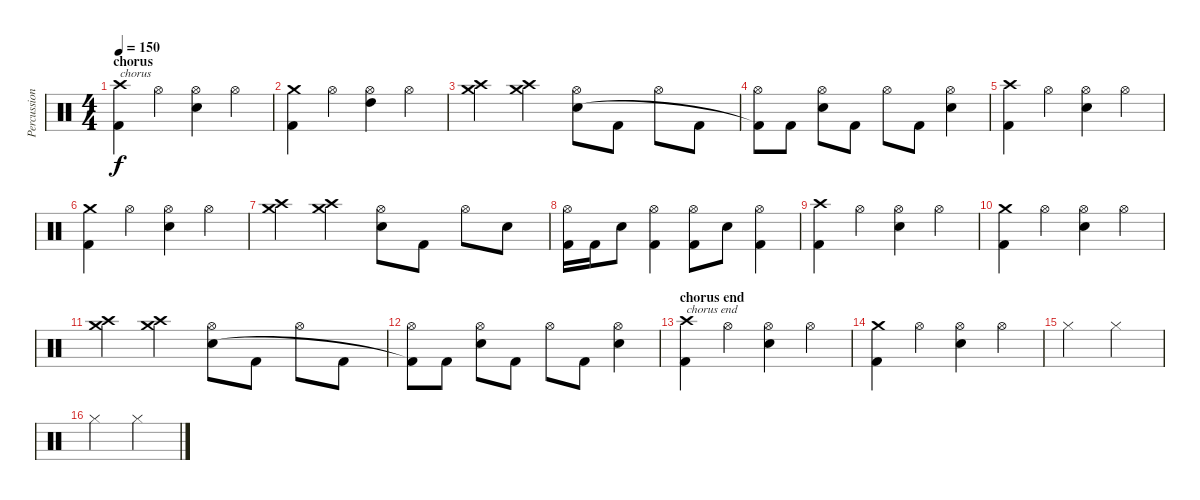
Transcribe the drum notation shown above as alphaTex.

\track ("Percussion" "Percussion") {instrument percussion}
\staff {score}
\articulation defaults
\ts (4 4)
\section ("" "chorus")
\tempo 150
\clef neutral
\ks c
("Crash high (hit)" "Kick (hit) 2").4{txt "chorus" dy f} "Hi-Hat (open)".4 ("Hi-Hat (open)" "Snare (hit) 2").4 "Hi-Hat (open)".4 |
("Crash medium (hit)" "Kick (hit) 2").4 "Hi-Hat (open)".4 ("Hi-Hat (open)" "High Tom (hit)").4 "Hi-Hat (open)".4 |
("Crash medium (hit)" "Crash high (hit)").4 ("Crash medium (hit)" "Crash high (hit)").4 ("Hi-Hat (open)" "Snare (hit) 2").8 "Kick (hit) 2".8 "Hi-Hat (open)".8 "Kick (hit) 2".8 |
("Hi-Hat (open)" "Kick (hit) 2"{t}).8 "Kick (hit) 2".8 ("Hi-Hat (open)" "Snare (hit) 2").8 "Kick (hit) 2".8 "Hi-Hat (open)".8 "Kick (hit) 2".8 ("Hi-Hat (open)" "Snare (hit) 2").4 |
("Crash high (hit)" "Kick (hit) 2").4 "Hi-Hat (open)".4 ("Hi-Hat (open)" "Snare (hit) 2").4 "Hi-Hat (open)".4 |
("Crash medium (hit)" "Kick (hit) 2").4 "Hi-Hat (open)".4 ("Hi-Hat (open)" "Snare (hit) 2").4 "Hi-Hat (open)".4 |
("Crash medium (hit)" "Crash high (hit)").4 ("Crash medium (hit)" "Crash high (hit)").4 ("Hi-Hat (open)" "Snare (hit) 2").8 "Kick (hit) 2".8 "Hi-Hat (open)".8 "Snare (hit) 2".8 |
("Hi-Hat (open)" "Kick (hit) 2").16 "Kick (hit) 2".16 "Snare (hit) 2".8 ("Hi-Hat (open)" "Kick (hit) 2").4 ("Hi-Hat (open)" "Kick (hit) 2").8 "Snare (hit) 2".8 ("Hi-Hat (open)" "Kick (hit) 2").4 |
("Crash high (hit)" "Kick (hit) 2").4 "Hi-Hat (open)".4 ("Hi-Hat (open)" "Snare (hit) 2").4 "Hi-Hat (open)".4 |
("Crash medium (hit)" "Kick (hit) 2").4 "Hi-Hat (open)".4 ("Hi-Hat (open)" "Snare (hit) 2").4 "Hi-Hat (open)".4 |
("Crash medium (hit)" "Crash high (hit)").4 ("Crash medium (hit)" "Crash high (hit)").4 ("Hi-Hat (open)" "Snare (hit) 2").8 "Kick (hit) 2".8 "Hi-Hat (open)".8 "Kick (hit) 2".8 |
("Hi-Hat (open)" "Kick (hit) 2"{t}).8 "Kick (hit) 2".8 ("Hi-Hat (open)" "Snare (hit) 2").8 "Kick (hit) 2".8 "Hi-Hat (open)".8 "Kick (hit) 2".8 ("Hi-Hat (open)" "Snare (hit) 2").4 |
\section ("" "chorus end")
("Crash high (hit)" "Kick (hit) 2").4{txt "chorus end"} "Hi-Hat (open)".4 ("Hi-Hat (open)" "Snare (hit) 2").4 "Hi-Hat (open)".4 |
("Crash medium (hit)" "Kick (hit) 2").4 "Hi-Hat (open)".4 ("Hi-Hat (open)" "Snare (hit) 2").4 "Hi-Hat (open)".4 |
"Hi-Hat (closed)".2 "Hi-Hat (closed)".2 |
"Hi-Hat (closed)".2 "Hi-Hat (closed)".2
